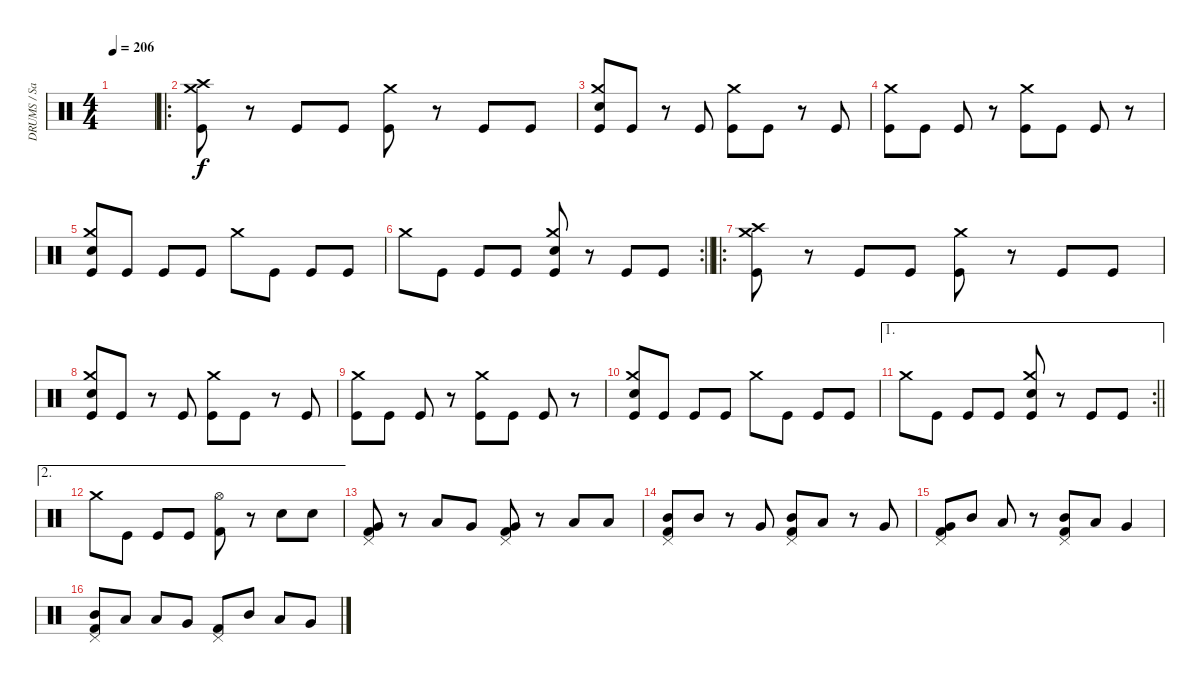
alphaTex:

\track ("DRUMS / Sasha" "DRUMS / Sa") {instrument percussion}
\staff {score}
\articulation defaults
\ts (4 4)
\tempo 206
\clef neutral
\ks c
|
\ro
("Kick (hit)" "Crash high (hit)" "Crash medium (hit)").8 r.8 "Kick (hit)".8 "Kick (hit)".8 ("Kick (hit)" "Crash medium (hit)").8 r.8 "Kick (hit)".8 "Kick (hit)".8 |
("Kick (hit)" "Crash medium (hit)" "Snare (hit) 2").8 "Kick (hit)".8 r.8 "Kick (hit)".8 ("Kick (hit)" "Crash medium (hit)").8 "Kick (hit)".8 r.8 "Kick (hit)".8 |
("Kick (hit)" "Crash medium (hit)").8 "Kick (hit)".8 "Kick (hit)".8 r.8 ("Kick (hit)" "Crash medium (hit)").8 "Kick (hit)".8 "Kick (hit)".8 r.8 |
("Kick (hit)" "Crash medium (hit)" "Snare (hit) 2").8 "Kick (hit)".8 "Kick (hit)".8 "Kick (hit)".8 "Crash medium (hit)".8 "Kick (hit)".8 "Kick (hit)".8 "Kick (hit)".8 |
\rc 2
\barLineRight lightlight "Crash medium (hit)".8 "Kick (hit)".8 "Kick (hit)".8 "Kick (hit)".8
("Kick (hit)" "Crash medium (hit)" "Snare (hit) 2").8 r.8 "Kick (hit)".8 "Kick (hit)".8 |
\ro
("Kick (hit)" "Crash high (hit)" "Crash medium (hit)").8 r.8 "Kick (hit)".8 "Kick (hit)".8 ("Kick (hit)" "Crash medium (hit)").8 r.8 "Kick (hit)".8 "Kick (hit)".8 |
("Kick (hit)" "Crash medium (hit)" "Snare (hit) 2").8 "Kick (hit)".8 r.8 "Kick (hit)".8 ("Kick (hit)" "Crash medium (hit)").8 "Kick (hit)".8 r.8 "Kick (hit)".8 |
("Kick (hit)" "Crash medium (hit)").8 "Kick (hit)".8 "Kick (hit)".8 r.8 ("Kick (hit)" "Crash medium (hit)").8 "Kick (hit)".8 "Kick (hit)".8 r.8 |
("Kick (hit)" "Crash medium (hit)" "Snare (hit) 2").8 "Kick (hit)".8 "Kick (hit)".8 "Kick (hit)".8 "Crash medium (hit)".8 "Kick (hit)".8 "Kick (hit)".8 "Kick (hit)".8 |
\ae 1
\rc 2
\barLineRight lightlight "Crash medium (hit)".8 "Kick (hit)".8 "Kick (hit)".8 "Kick (hit)".8
("Kick (hit)" "Crash medium (hit)" "Snare (hit) 2").8 r.8 "Kick (hit)".8 "Kick (hit)".8 |
\ae 2 "Crash medium (hit)".8 "Kick (hit)".8 "Kick (hit)".8 "Kick (hit)".8
("Hi-Hat (open)" "Kick (hit) 2").8 r.8 "Electric Snare (hit)".8 "Electric Snare (hit)".8 |
("Pedal Hi-Hat (hit)" "Very Low Tom (hit)" "Kick (hit) 2").8 r.8 "Low Tom (hit)".8 "Very Low Tom (hit)".8 ("Pedal Hi-Hat (hit)" "Very Low Tom (hit)" "Kick (hit) 2").8 r.8 "Low Tom (hit)".8 "Low Tom (hit)".8 |
("Pedal Hi-Hat (hit)" "Mid Tom (hit)" "Kick (hit) 2").8 "Mid Tom (hit)".8 r.8 "Very Low Tom (hit)".8 ("Pedal Hi-Hat (hit)" "Mid Tom (hit)" "Kick (hit) 2").8 "Low Tom (hit)".8 r.8 "Very Low Tom (hit)".8 |
("Pedal Hi-Hat (hit)" "Very Low Tom (hit)" "Kick (hit) 2").8 "Mid Tom (hit)".8 "Low Tom (hit)".8 r.8 ("Pedal Hi-Hat (hit)" "Mid Tom (hit)" "Kick (hit) 2").8 "Low Tom (hit)".8 "Very Low Tom (hit)".4 |
("Pedal Hi-Hat (hit)" "Mid Tom (hit)" "Kick (hit) 2").8 "Low Tom (hit)".8 "Low Tom (hit)".8 "Very Low Tom (hit)".8 ("Pedal Hi-Hat (hit)" "Kick (hit) 2").8 "Mid Tom (hit)".8 "Low Tom (hit)".8 "Very Low Tom (hit)".8
